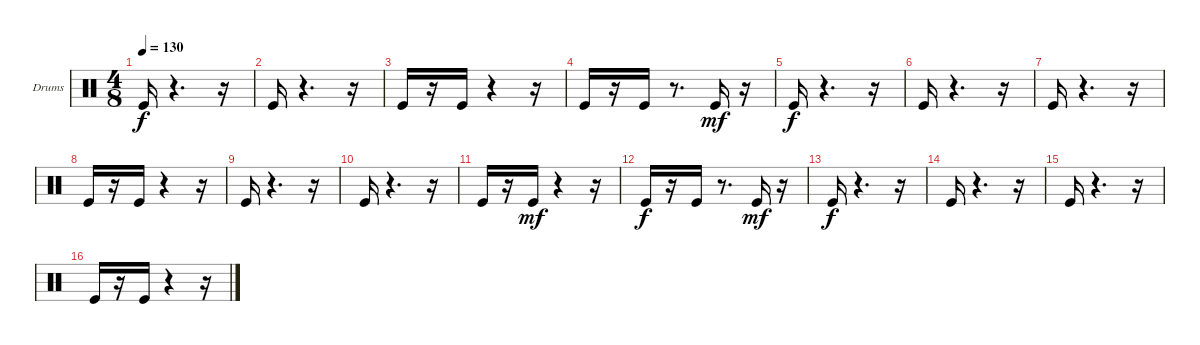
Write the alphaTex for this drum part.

\bracketExtendMode groupsimilarinstruments
\firstSystemTrackNameOrientation horizontal
\otherSystemsTrackNameOrientation horizontal
\track ("Ударные" "Drums") {instrument percussion}
\staff {score}
\articulation defaults
\ts (4 8)
\tempo 130
\clef neutral
\ks c "Kick (hit)".16{dy f}
r.4{d} r.16 |
"Kick (hit)".16 r.4{d} r.16 |
"Kick (hit)".16 r.16 "Kick (hit)".16 r.4 r.16 |
"Kick (hit)".16 r.16 "Kick (hit)".16 r.8{d} "Kick (hit)".16{dy mf} r.16 |
"Kick (hit)".16{dy f} r.4{d} r.16 |
"Kick (hit)".16 r.4{d} r.16 |
"Kick (hit)".16 r.4{d} r.16 |
"Kick (hit)".16 r.16 "Kick (hit)".16 r.4 r.16 |
"Kick (hit)".16 r.4{d} r.16 |
"Kick (hit)".16 r.4{d} r.16 |
"Kick (hit)".16 r.16 "Kick (hit)".16{dy mf} r.4 r.16 |
"Kick (hit)".16{dy f} r.16 "Kick (hit)".16 r.8{d} "Kick (hit)".16{dy mf} r.16 |
"Kick (hit)".16{dy f} r.4{d} r.16 |
"Kick (hit)".16 r.4{d} r.16 |
"Kick (hit)".16 r.4{d} r.16 |
"Kick (hit)".16 r.16 "Kick (hit)".16 r.4 r.16
